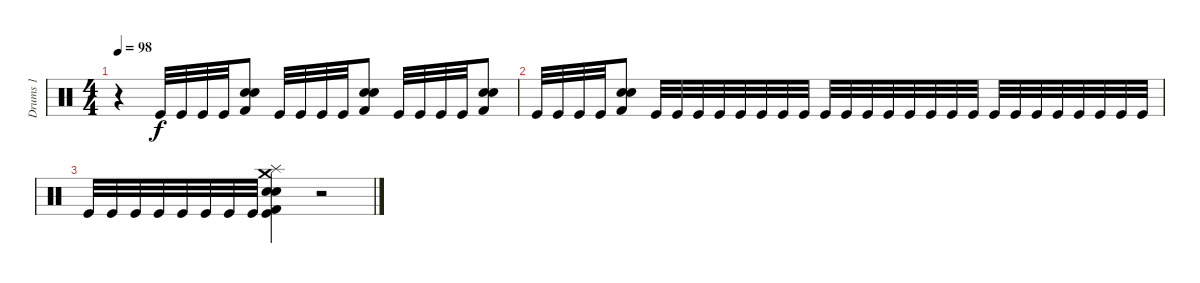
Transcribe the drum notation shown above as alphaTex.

\track ("Drums 1" "Drums 1") {instrument percussion}
\staff {score}
\articulation defaults
\ts (4 4)
\tempo 98
\clef neutral
\ks c
r.4{dy f} "Kick (hit)".32 "Kick (hit)".32 "Kick (hit)".32 "Kick (hit)".32 ("Electric Snare (hit)" "Snare (hit) 2" "Kick (hit) 2").8 "Kick (hit)".32 "Kick (hit)".32 "Kick (hit)".32 "Kick (hit)".32 ("Electric Snare (hit)" "Snare (hit) 2" "Kick (hit) 2").8 "Kick (hit)".32 "Kick (hit)".32 "Kick (hit)".32 "Kick (hit)".32 ("Electric Snare (hit)" "Snare (hit) 2" "Kick (hit) 2").8 |
"Kick (hit)".32 "Kick (hit)".32 "Kick (hit)".32 "Kick (hit)".32 ("Electric Snare (hit)" "Snare (hit) 2" "Kick (hit) 2").8 "Kick (hit)".32 "Kick (hit)".32 "Kick (hit)".32 "Kick (hit)".32 "Kick (hit)".32 "Kick (hit)".32 "Kick (hit)".32 "Kick (hit)".32 "Kick (hit)".32 "Kick (hit)".32 "Kick (hit)".32 "Kick (hit)".32 "Kick (hit)".32 "Kick (hit)".32 "Kick (hit)".32 "Kick (hit)".32 "Kick (hit)".32 "Kick (hit)".32 "Kick (hit)".32 "Kick (hit)".32 "Kick (hit)".32 "Kick (hit)".32 "Kick (hit)".32 "Kick (hit)".32 |
"Kick (hit)".32 "Kick (hit)".32 "Kick (hit)".32 "Kick (hit)".32 "Kick (hit)".32 "Kick (hit)".32 "Kick (hit)".32 "Kick (hit)".32 ("Crash medium (hit)" "Splash (hit)" "Electric Snare (hit)" "Snare (hit) 2" "Kick (hit) 2" "Kick (hit)").4 r.2
